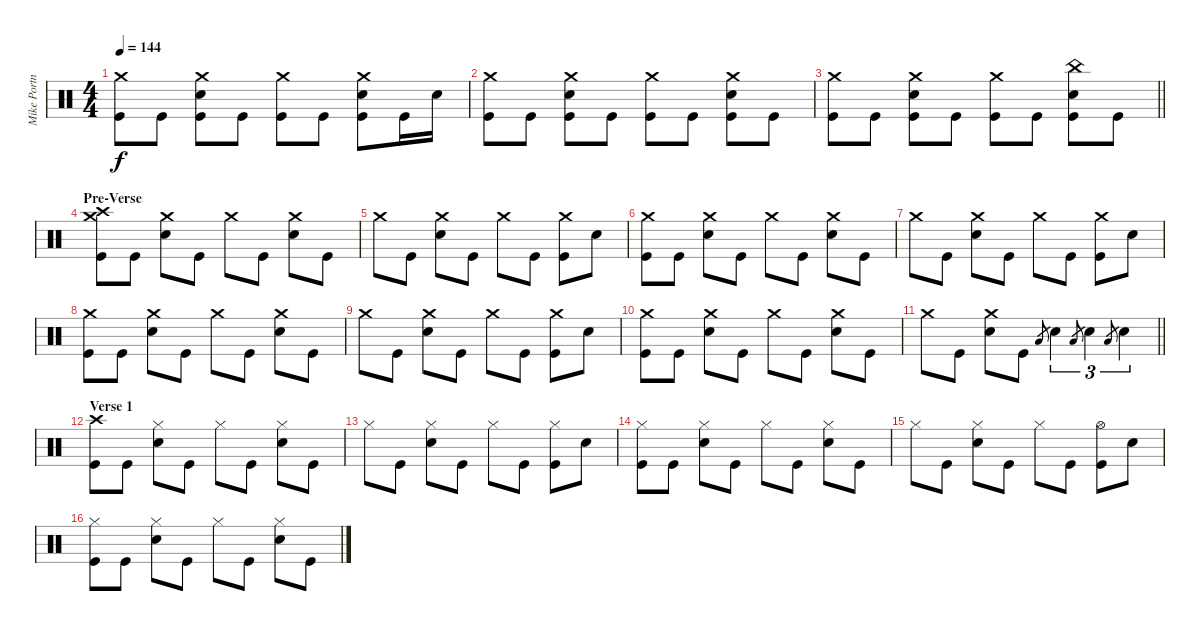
\track ("Mike Portnoy" "Mike Portn") {instrument percussion}
\staff {score}
\articulation defaults
\ts (4 4)
\tempo 144
\clef neutral
\ks c
("Crash medium (hit)" "Kick (hit)").8{dy f} "Kick (hit)".8 ("Crash medium (hit)" "Electric Snare (hit)" "Kick (hit)").8 "Kick (hit)".8 ("Crash medium (hit)" "Kick (hit)").8 "Kick (hit)".8 ("Crash medium (hit)" "Electric Snare (hit)" "Kick (hit)").8 "Kick (hit)".16 "Electric Snare (hit)".16 |
("Crash medium (hit)" "Kick (hit)").8 "Kick (hit)".8 ("Crash medium (hit)" "Electric Snare (hit)" "Kick (hit)").8 "Kick (hit)".8 ("Crash medium (hit)" "Kick (hit)").8 "Kick (hit)".8 ("Crash medium (hit)" "Electric Snare (hit)" "Kick (hit)").8 "Kick (hit)".8 |
\barLineRight lightlight
("Crash medium (hit)" "Kick (hit)").8 "Kick (hit)".8 ("Crash medium (hit)" "Electric Snare (hit)" "Kick (hit)").8 "Kick (hit)".8 ("Crash medium (hit)" "Kick (hit)").8 "Kick (hit)".8 ("China (hit)" "Electric Snare (hit)" "Kick (hit)").8 "Kick (hit)".8 |
\section ("" "Pre-Verse")
("Crash medium (hit)" "Crash high (hit)" "Kick (hit)").8 "Kick (hit)".8 ("Crash medium (hit)" "Electric Snare (hit)").8 "Kick (hit)".8 "Crash medium (hit)".8 "Kick (hit)".8 ("Crash medium (hit)" "Electric Snare (hit)").8 "Kick (hit)".8 |
"Crash medium (hit)".8 "Kick (hit)".8 ("Crash medium (hit)" "Electric Snare (hit)").8 "Kick (hit)".8 "Crash medium (hit)".8 "Kick (hit)".8 ("Crash medium (hit)" "Kick (hit)").8 "Electric Snare (hit)".8 |
("Crash medium (hit)" "Kick (hit)").8 "Kick (hit)".8 ("Crash medium (hit)" "Electric Snare (hit)").8 "Kick (hit)".8 "Crash medium (hit)".8 "Kick (hit)".8 ("Crash medium (hit)" "Electric Snare (hit)").8 "Kick (hit)".8 |
"Crash medium (hit)".8 "Kick (hit)".8 ("Crash medium (hit)" "Electric Snare (hit)").8 "Kick (hit)".8 "Crash medium (hit)".8 "Kick (hit)".8 ("Crash medium (hit)" "Kick (hit)").8 "Electric Snare (hit)".8 |
("Crash medium (hit)" "Kick (hit)").8 "Kick (hit)".8 ("Crash medium (hit)" "Electric Snare (hit)").8 "Kick (hit)".8 "Crash medium (hit)".8 "Kick (hit)".8 ("Crash medium (hit)" "Electric Snare (hit)").8 "Kick (hit)".8 |
"Crash medium (hit)".8 "Kick (hit)".8 ("Crash medium (hit)" "Electric Snare (hit)").8 "Kick (hit)".8 "Crash medium (hit)".8 "Kick (hit)".8 ("Crash medium (hit)" "Kick (hit)").8 "Electric Snare (hit)".8 |
("Crash medium (hit)" "Kick (hit)").8 "Kick (hit)".8 ("Crash medium (hit)" "Electric Snare (hit)").8 "Kick (hit)".8 "Crash medium (hit)".8 "Kick (hit)".8 ("Crash medium (hit)" "Electric Snare (hit)").8 "Kick (hit)".8 |
\barLineRight lightlight "Crash medium (hit)".8 "Kick (hit)".8
("Crash medium (hit)" "Electric Snare (hit)").8 "Kick (hit)".8 "Low Floor Tom (hit)".8{gr} "Electric Snare (hit)".4{tu (3 2)} "Low Floor Tom (hit)".8{gr} "Electric Snare (hit)".4{tu (3 2)} "Low Floor Tom (hit)".8{gr} "Electric Snare (hit)".4{tu (3 2)} |
\section ("" "Verse 1")
("Crash high (hit)" "Kick (hit)").8 "Kick (hit)".8 ("Hi-Hat (closed)" "Electric Snare (hit)").8 "Kick (hit)".8 "Hi-Hat (closed)".8 "Kick (hit)".8 ("Hi-Hat (closed)" "Electric Snare (hit)").8 "Kick (hit)".8 |
"Hi-Hat (closed)".8 "Kick (hit)".8 ("Hi-Hat (closed)" "Electric Snare (hit)").8 "Kick (hit)".8 "Hi-Hat (closed)".8 "Kick (hit)".8 ("Hi-Hat (closed)" "Kick (hit)").8 "Electric Snare (hit)".8 |
("Hi-Hat (closed)" "Kick (hit)").8 "Kick (hit)".8 ("Hi-Hat (closed)" "Electric Snare (hit)").8 "Kick (hit)".8 "Hi-Hat (closed)".8 "Kick (hit)".8 ("Hi-Hat (closed)" "Electric Snare (hit)").8 "Kick (hit)".8 |
"Hi-Hat (closed)".8 "Kick (hit)".8 ("Hi-Hat (closed)" "Electric Snare (hit)").8 "Kick (hit)".8 "Hi-Hat (closed)".8 "Kick (hit)".8 ("Hi-Hat (open)" "Kick (hit)").8 "Electric Snare (hit)".8 |
("Hi-Hat (closed)" "Kick (hit)").8 "Kick (hit)".8 ("Hi-Hat (closed)" "Electric Snare (hit)").8 "Kick (hit)".8 "Hi-Hat (closed)".8 "Kick (hit)".8 ("Hi-Hat (closed)" "Electric Snare (hit)").8 "Kick (hit)".8
